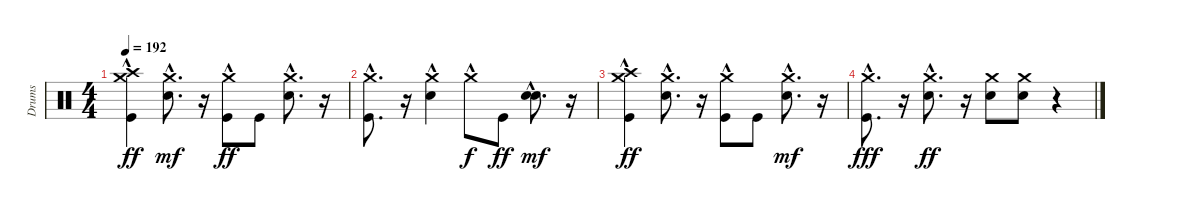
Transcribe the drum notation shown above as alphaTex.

\track ("Drums" "Drums") {instrument percussion}
\staff {score}
\articulation defaults
\ts (4 4)
\tempo 192
\clef neutral
\ks c
("Kick (hit)"{hac} "Crash medium (hit)"{hac} "Crash high (hit)"{hac}).4{dy ff} ("Electric Snare (hit)"{hac} "Crash medium (hit)"{hac}).8{d dy mf} r.16 ("Kick (hit)" "Crash medium (hit)"{hac}).8{dy ff} "Kick (hit)".8 ("Crash medium (hit)"{hac} "Electric Snare (hit)"{hac}).8{d} r.16 |
("Crash medium (hit)"{hac} "Kick (hit)"{hac}).8{d} r.16 ("Crash medium (hit)"{hac} "Electric Snare (hit)").4 "Crash medium (hit)"{hac}.8{dy f} "Kick (hit)".8{dy ff} ("Electric Snare (hit)"{hac} "Snare (hit) 2"{hac}).8{d dy mf} r.16 |
("Crash high (hit)"{hac} "Crash medium (hit)"{hac} "Kick (hit)"{hac}).4{dy ff} ("Crash medium (hit)"{hac} "Electric Snare (hit)"{hac}).8{d} r.16 ("Kick (hit)" "Crash medium (hit)"{hac}).8 "Kick (hit)".8 ("Electric Snare (hit)"{hac} "Crash medium (hit)"{hac}).8{d dy mf} r.16 |
("Crash medium (hit)"{hac} "Kick (hit)"{hac}).8{d dy fff} r.16 ("Crash medium (hit)"{hac} "Electric Snare (hit)"{hac}).8{d dy ff} r.16 ("Crash medium (hit)" "Electric Snare (hit)").8 ("Electric Snare (hit)" "Crash medium (hit)").8 r.4
